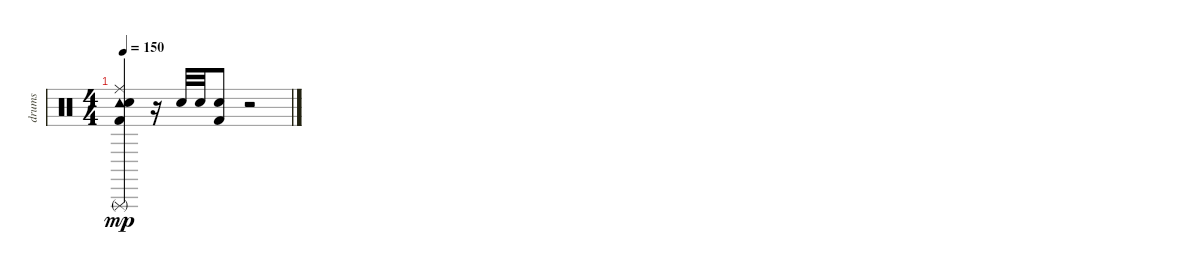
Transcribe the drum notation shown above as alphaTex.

\track ("drums" "drums") {instrument percussion}
\staff {score}
\articulation defaults
\ts (4 4)
\tempo 150
\clef neutral
\ks c
("Triangle (rnute)" "Tambourine (hit)" "Ride (middle)" "Kick (hit) 2" "Snare (hit) 2").4{dy mp volume 8} r.16 "Snare (hit) 2".32{volume 6} "Snare (hit) 2".32 ("Kick (hit) 2" "Snare (hit) 2").8{volume 6} r.2
